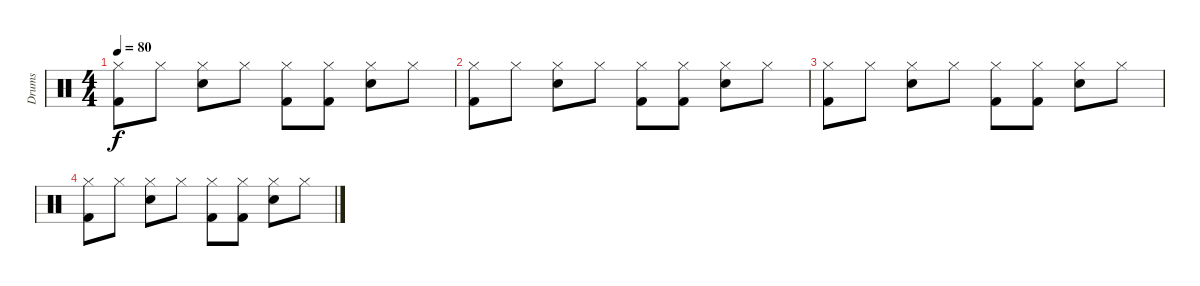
\track ("Drums" "Drums") {instrument percussion}
\staff {score}
\articulation defaults
\ts (4 4)
\tempo 80
\clef neutral
\ks c
("Hi-Hat (closed)" "Kick (hit) 2").8{dy f} "Hi-Hat (closed)".8 ("Hi-Hat (closed)" "Electric Snare (hit)").8 "Hi-Hat (closed)".8 ("Hi-Hat (closed)" "Kick (hit) 2").8 ("Hi-Hat (closed)" "Kick (hit) 2").8 ("Hi-Hat (closed)" "Electric Snare (hit)").8 "Hi-Hat (closed)".8 |
("Hi-Hat (closed)" "Kick (hit) 2").8 "Hi-Hat (closed)".8 ("Hi-Hat (closed)" "Electric Snare (hit)").8 "Hi-Hat (closed)".8 ("Hi-Hat (closed)" "Kick (hit) 2").8 ("Hi-Hat (closed)" "Kick (hit) 2").8 ("Hi-Hat (closed)" "Electric Snare (hit)").8 "Hi-Hat (closed)".8 |
("Hi-Hat (closed)" "Kick (hit) 2").8 "Hi-Hat (closed)".8 ("Hi-Hat (closed)" "Electric Snare (hit)").8 "Hi-Hat (closed)".8 ("Hi-Hat (closed)" "Kick (hit) 2").8 ("Hi-Hat (closed)" "Kick (hit) 2").8 ("Hi-Hat (closed)" "Electric Snare (hit)").8 "Hi-Hat (closed)".8 |
("Hi-Hat (closed)" "Kick (hit) 2").8 "Hi-Hat (closed)".8 ("Hi-Hat (closed)" "Electric Snare (hit)").8 "Hi-Hat (closed)".8 ("Hi-Hat (closed)" "Kick (hit) 2").8 ("Hi-Hat (closed)" "Kick (hit) 2").8 ("Hi-Hat (closed)" "Electric Snare (hit)").8 "Hi-Hat (closed)".8
